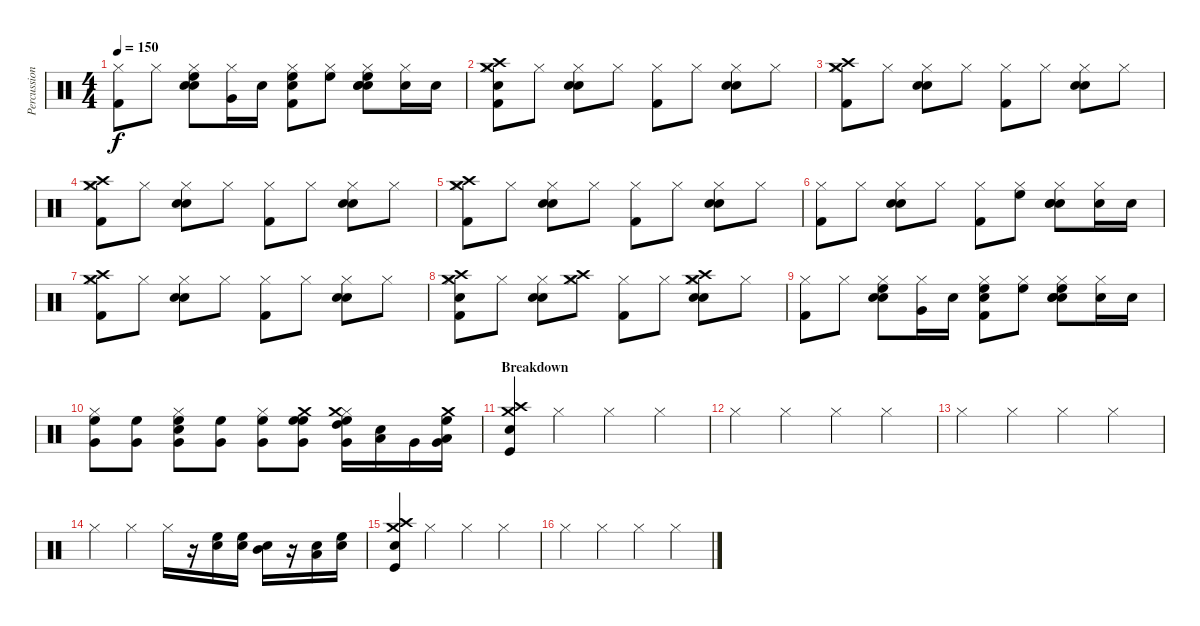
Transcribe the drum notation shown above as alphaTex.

\track ("Percussion" "Percussion") {instrument percussion}
\staff {score}
\articulation defaults
\ts (4 4)
\tempo 150
\clef neutral
\ks c
("Hi-Hat (closed)" "Kick (hit) 2").8{dy f} "Hi-Hat (closed)".8 ("Hi-Hat (closed)" "Snare (hit) 2" "Electric Snare (hit)" "High Floor Tom (hit)").8 ("Hi-Hat (closed)" "Very Low Tom (hit)").16 "Snare (hit) 2".16 ("Hi-Hat (closed)" "Kick (hit) 2" "Snare (hit) 2" "High Floor Tom (hit)").8 ("Hi-Hat (closed)" "High Floor Tom (hit)").8 ("Hi-Hat (closed)" "Snare (hit) 2" "Electric Snare (hit)" "Snare (hit) 2" "High Floor Tom (hit)").8 ("Hi-Hat (closed)" "Snare (hit) 2").16 "Snare (hit) 2".16 |
("Hi-Hat (closed)" "Kick (hit) 2" "Crash high (hit)" "Snare (hit) 2" "Crash medium (hit)").8 "Hi-Hat (closed)".8 ("Hi-Hat (closed)" "Snare (hit) 2" "Electric Snare (hit)").8 "Hi-Hat (closed)".8 ("Hi-Hat (closed)" "Kick (hit) 2").8 "Hi-Hat (closed)".8 ("Hi-Hat (closed)" "Snare (hit) 2" "Electric Snare (hit)").8 "Hi-Hat (closed)".8 |
("Hi-Hat (closed)" "Kick (hit) 2" "Crash medium (hit)" "Crash high (hit)").8 "Hi-Hat (closed)".8 ("Hi-Hat (closed)" "Snare (hit) 2" "Electric Snare (hit)").8 "Hi-Hat (closed)".8 ("Hi-Hat (closed)" "Kick (hit) 2").8 "Hi-Hat (closed)".8 ("Hi-Hat (closed)" "Snare (hit) 2" "Electric Snare (hit)").8 "Hi-Hat (closed)".8 |
("Hi-Hat (closed)" "Kick (hit) 2" "Crash medium (hit)" "Crash high (hit)").8 "Hi-Hat (closed)".8 ("Hi-Hat (closed)" "Snare (hit) 2" "Electric Snare (hit)").8 "Hi-Hat (closed)".8 ("Hi-Hat (closed)" "Kick (hit) 2").8 "Hi-Hat (closed)".8 ("Hi-Hat (closed)" "Snare (hit) 2" "Electric Snare (hit)").8 "Hi-Hat (closed)".8 |
("Hi-Hat (closed)" "Kick (hit) 2" "Crash medium (hit)" "Crash high (hit)").8 "Hi-Hat (closed)".8 ("Hi-Hat (closed)" "Snare (hit) 2" "Electric Snare (hit)").8 "Hi-Hat (closed)".8 ("Hi-Hat (closed)" "Kick (hit) 2").8 "Hi-Hat (closed)".8 ("Hi-Hat (closed)" "Snare (hit) 2" "Electric Snare (hit)").8 "Hi-Hat (closed)".8 |
("Hi-Hat (closed)" "Kick (hit) 2").8 "Hi-Hat (closed)".8 ("Hi-Hat (closed)" "Snare (hit) 2" "Electric Snare (hit)").8 "Hi-Hat (closed)".8 ("Hi-Hat (closed)" "Kick (hit) 2").8 ("Hi-Hat (closed)" "High Floor Tom (hit)").8 ("Hi-Hat (closed)" "Snare (hit) 2" "Electric Snare (hit)" "Snare (hit) 2").8 ("Hi-Hat (closed)" "Snare (hit) 2").16 "Snare (hit) 2".16 |
("Hi-Hat (closed)" "Kick (hit) 2" "Crash medium (hit)" "Crash high (hit)").8 "Hi-Hat (closed)".8 ("Hi-Hat (closed)" "Snare (hit) 2" "Electric Snare (hit)").8 "Hi-Hat (closed)".8 ("Hi-Hat (closed)" "Kick (hit) 2").8 "Hi-Hat (closed)".8 ("Hi-Hat (closed)" "Snare (hit) 2" "Electric Snare (hit)").8 "Hi-Hat (closed)".8 |
("Hi-Hat (closed)" "Kick (hit) 2" "Crash high (hit)" "Snare (hit) 2" "Crash medium (hit)").8 "Hi-Hat (closed)".8 ("Hi-Hat (closed)" "Snare (hit) 2" "Electric Snare (hit)").8 ("Hi-Hat (closed)" "Crash high (hit)" "Crash medium (hit)").8 ("Hi-Hat (closed)" "Kick (hit) 2").8 "Hi-Hat (closed)".8 ("Hi-Hat (closed)" "Snare (hit) 2" "Electric Snare (hit)" "Crash high (hit)" "Crash medium (hit)").8 "Hi-Hat (closed)".8 |
("Hi-Hat (closed)" "Kick (hit) 2").8 "Hi-Hat (closed)".8 ("Hi-Hat (closed)" "Snare (hit) 2" "Electric Snare (hit)" "High Floor Tom (hit)").8 ("Hi-Hat (closed)" "Very Low Tom (hit)").16 "Snare (hit) 2".16 ("Hi-Hat (closed)" "Kick (hit) 2" "Snare (hit) 2" "High Floor Tom (hit)").8 ("Hi-Hat (closed)" "High Floor Tom (hit)").8 ("Hi-Hat (closed)" "Snare (hit) 2" "Electric Snare (hit)" "Snare (hit) 2" "High Floor Tom (hit)").8 ("Hi-Hat (closed)" "Snare (hit) 2").16 "Snare (hit) 2".16 |
("Hi-Hat (closed)" "High Floor Tom (hit)" "Very Low Tom (hit)").8 ("High Floor Tom (hit)" "Very Low Tom (hit)").8 ("Hi-Hat (closed)" "High Floor Tom (hit)" "Snare (hit) 2" "Very Low Tom (hit)").8 ("High Floor Tom (hit)" "Very Low Tom (hit)").8 ("Hi-Hat (closed)" "High Floor Tom (hit)" "Very Low Tom (hit)").8 ("High Floor Tom (hit)" "High Floor Tom (hit)" "Very Low Tom (hit)" "Crash medium (hit)").8 ("Hi-Hat (closed)" "High Floor Tom (hit)" "High Tom (hit)" "Very Low Tom (hit)" "Crash medium (hit)").16 ("Low Tom (hit)" "Snare (hit) 2").16 "Very Low Tom (hit)".16 ("High Floor Tom (hit)" "Low Tom (hit)" "Very Low Tom (hit)" "Crash medium (hit)").16 |
\section ("" "Breakdown")
("Snare (hit) 2" "Kick (hit)" "Crash medium (hit)" "Crash high (hit)").4 "Hi-Hat (closed)".4 "Hi-Hat (closed)".4 "Hi-Hat (closed)".4 |
"Hi-Hat (closed)".4 "Hi-Hat (closed)".4 "Hi-Hat (closed)".4 "Hi-Hat (closed)".4 |
"Hi-Hat (closed)".4 "Hi-Hat (closed)".4 "Hi-Hat (closed)".4 "Hi-Hat (closed)".4 |
"Hi-Hat (closed)".4 "Hi-Hat (closed)".4 "Hi-Hat (closed)".16 r.16 ("High Floor Tom (hit)" "Snare (hit) 2").16 ("High Floor Tom (hit)" "Snare (hit) 2").16 ("Mid Tom (hit)" "Snare (hit) 2").16 r.16 ("Low Tom (hit)" "Snare (hit) 2").16 ("High Floor Tom (hit)" "Snare (hit) 2").16 |
("Snare (hit) 2" "Kick (hit)" "Crash medium (hit)" "Crash high (hit)").4 "Hi-Hat (closed)".4 "Hi-Hat (closed)".4 "Hi-Hat (closed)".4 |
"Hi-Hat (closed)".4 "Hi-Hat (closed)".4 "Hi-Hat (closed)".4 "Hi-Hat (closed)".4
